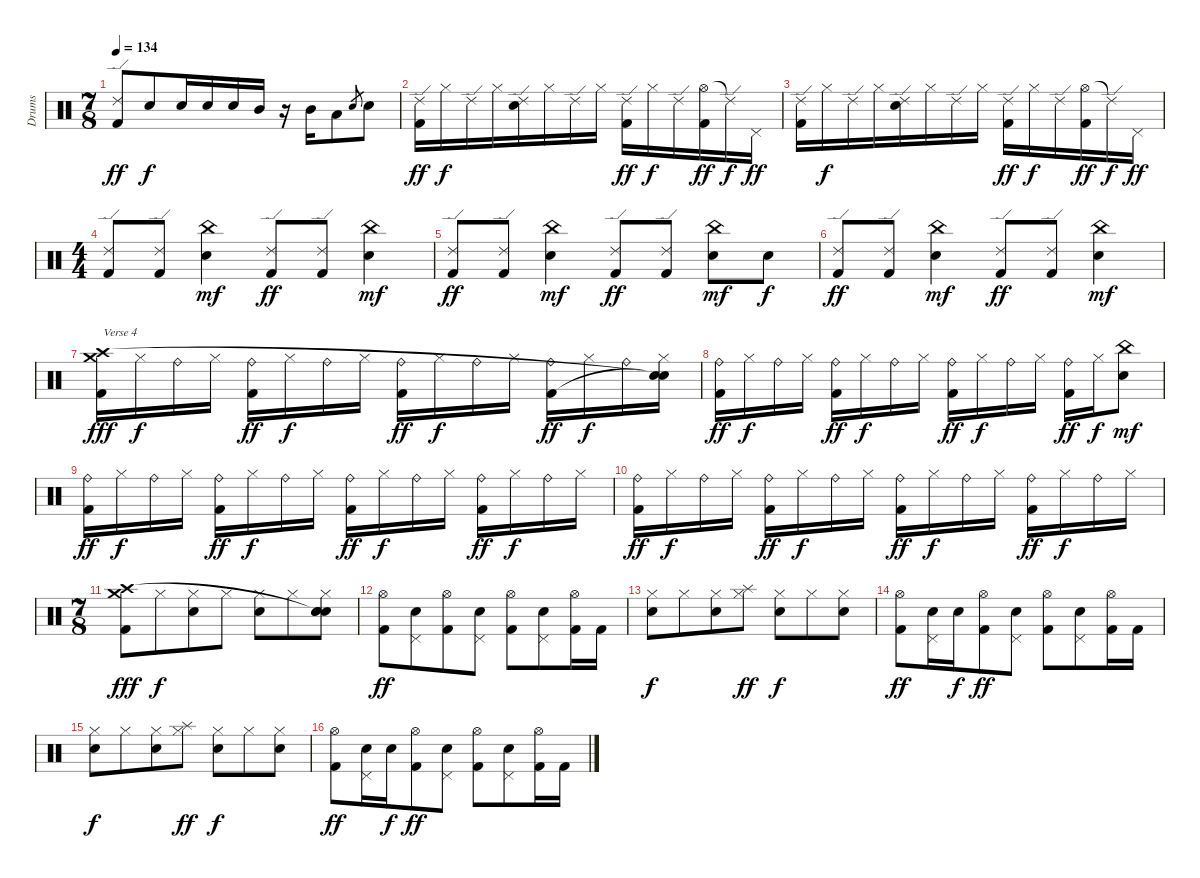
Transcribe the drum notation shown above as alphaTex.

\track ("Drums" "Drums") {instrument percussion}
\staff {score}
\articulation defaults
\ts (7 8)
\tempo 134
\clef neutral
\ks c
("Ride (edge) 2" "Kick (hit) 2").8{dy ff} "Snare (hit) 2".8{dy f} "Snare (hit) 2".16 "Snare (hit) 2".16 "Snare (hit) 2".16 "Mid Tom (hit)".16 r.16 "Mid Tom (hit)".16 "Low Tom (hit)".8 "Snare (hit) 2".8{gr} "Snare (hit) 2".8 |
("Ride (edge) 2" "Kick (hit) 2").16{dy ff} "Hi-Hat (closed)".16{dy f} "Ride (edge) 2".16 "Hi-Hat (closed)".16 ("Ride (edge) 2" "Snare (hit) 2").16 "Hi-Hat (closed)".16 "Ride (edge) 2".16 "Hi-Hat (closed)".16 ("Ride (edge) 2" "Kick (hit) 2").16{dy ff} "Hi-Hat (closed)".16{dy f} "Ride (edge) 2".16 ("Hi-Hat (open)" "Kick (hit) 2").16{dy ff} "Ride (edge) 2"{t}.16{dy f} "Pedal Hi-Hat (hit)".16{dy ff} |
("Ride (edge) 2" "Kick (hit) 2").16 "Hi-Hat (closed)".16{dy f} "Ride (edge) 2".16 "Hi-Hat (closed)".16 ("Ride (edge) 2" "Snare (hit) 2").16 "Hi-Hat (closed)".16 "Ride (edge) 2".16 "Hi-Hat (closed)".16 ("Ride (edge) 2" "Kick (hit) 2").16{dy ff} "Hi-Hat (closed)".16{dy f} "Ride (edge) 2".16 ("Hi-Hat (open)" "Kick (hit) 2").16{dy ff} "Ride (edge) 2"{t}.16{dy f} "Pedal Hi-Hat (hit)".16{dy ff} |
\ts (4 4)
("Ride (edge) 2" "Kick (hit) 2").8 ("Ride (edge) 2" "Kick (hit) 2").8 ("China (hit)" "Snare (hit) 2").4{dy mf} ("Ride (edge) 2" "Kick (hit) 2").8{dy ff} ("Ride (edge) 2" "Kick (hit) 2").8 ("China (hit)" "Snare (hit) 2").4{dy mf} |
("Ride (edge) 2" "Kick (hit) 2").8{dy ff} ("Ride (edge) 2" "Kick (hit) 2").8 ("China (hit)" "Snare (hit) 2").4{dy mf} ("Ride (edge) 2" "Kick (hit) 2").8{dy ff} ("Ride (edge) 2" "Kick (hit) 2").8 ("China (hit)" "Snare (hit) 2").8{dy mf} "Snare (hit) 2".8{dy f} |
("Ride (edge) 2" "Kick (hit) 2").8{dy ff} ("Ride (edge) 2" "Kick (hit) 2").8 ("China (hit)" "Snare (hit) 2").4{dy mf} ("Ride (edge) 2" "Kick (hit) 2").8{dy ff} ("Ride (edge) 2" "Kick (hit) 2").8 ("China (hit)" "Snare (hit) 2").4{dy mf} |
("Crash medium (hit)" "Kick (hit) 2" "Crash high (hit)").16{txt "Verse 4" dy fff} "Hi-Hat (closed)".16{dy f} "Ride (bell)".16 "Hi-Hat (closed)".16 ("Ride (bell)" "Kick (hit) 2").16{dy ff} "Hi-Hat (closed)".16{dy f} "Ride (bell)".16 "Hi-Hat (closed)".16 ("Ride (bell)" "Kick (hit) 2").16{dy ff} "Hi-Hat (closed)".16{dy f} "Ride (bell)".16 "Hi-Hat (closed)".16 ("Ride (bell)" "Kick (hit) 2").16{dy ff} "Hi-Hat (closed)".16{dy f} "Ride (bell)".16 ("Hi-Hat (closed)" "Snare (hit)"{t} "Snare (hit)"{t}).16 |
("Ride (bell)" "Kick (hit) 2").16{dy ff} "Hi-Hat (closed)".16{dy f} "Ride (bell)".16 "Hi-Hat (closed)".16 ("Ride (bell)" "Kick (hit) 2").16{dy ff} "Hi-Hat (closed)".16{dy f} "Ride (bell)".16 "Hi-Hat (closed)".16 ("Ride (bell)" "Kick (hit) 2").16{dy ff} "Hi-Hat (closed)".16{dy f} "Ride (bell)".16 "Hi-Hat (closed)".16 ("Ride (bell)" "Kick (hit) 2").16{dy ff} "Hi-Hat (closed)".16{dy f} ("China (hit)" "Snare (hit) 2").8{dy mf} |
("Ride (bell)" "Kick (hit) 2").16{dy ff} "Hi-Hat (closed)".16{dy f} "Ride (bell)".16 "Hi-Hat (closed)".16 ("Ride (bell)" "Kick (hit) 2").16{dy ff} "Hi-Hat (closed)".16{dy f} "Ride (bell)".16 "Hi-Hat (closed)".16 ("Ride (bell)" "Kick (hit) 2").16{dy ff} "Hi-Hat (closed)".16{dy f} "Ride (bell)".16 "Hi-Hat (closed)".16 ("Ride (bell)" "Kick (hit) 2").16{dy ff} "Hi-Hat (closed)".16{dy f} "Ride (bell)".16 "Hi-Hat (closed)".16 |
("Ride (bell)" "Kick (hit) 2").16{dy ff} "Hi-Hat (closed)".16{dy f} "Ride (bell)".16 "Hi-Hat (closed)".16 ("Ride (bell)" "Kick (hit) 2").16{dy ff} "Hi-Hat (closed)".16{dy f} "Ride (bell)".16 "Hi-Hat (closed)".16 ("Ride (bell)" "Kick (hit) 2").16{dy ff} "Hi-Hat (closed)".16{dy f} "Ride (bell)".16 "Hi-Hat (closed)".16 ("Ride (bell)" "Kick (hit) 2").16{dy ff} "Hi-Hat (closed)".16{dy f} "Ride (bell)".16 "Hi-Hat (closed)".16 |
\ts (7 8)
("Crash medium (hit)" "Kick (hit) 2" "Crash high (hit)").8{dy fff} "Hi-Hat (closed)".8{dy f} ("Hi-Hat (closed)" "Snare (hit) 2").8 "Hi-Hat (closed)".8 ("Hi-Hat (closed)" "Snare (hit) 2").8 "Hi-Hat (closed)".8 ("Hi-Hat (closed)" "Snare (hit) 2" "Snare (hit)"{t} "Snare (hit)").8 |
("Hi-Hat (open)" "Kick (hit) 2").8{dy ff} ("Pedal Hi-Hat (hit)" "Snare (hit) 2").8 ("Hi-Hat (open)" "Kick (hit) 2").8 ("Pedal Hi-Hat (hit)" "Snare (hit) 2").8 ("Hi-Hat (open)" "Kick (hit) 2").8 ("Pedal Hi-Hat (hit)" "Snare (hit) 2").8 ("Hi-Hat (open)" "Kick (hit) 2").16 "Kick (hit) 2".16 |
("Hi-Hat (closed)" "Snare (hit) 2").8{dy f} "Hi-Hat (closed)".8 ("Hi-Hat (closed)" "Snare (hit) 2").8 ("Splash (hit)" "Hi-Hat (closed)").8{dy ff} ("Hi-Hat (closed)" "Snare (hit) 2").8{dy f} "Hi-Hat (closed)".8 ("Hi-Hat (closed)" "Snare (hit) 2").8 |
("Hi-Hat (open)" "Kick (hit) 2").8{dy ff} ("Pedal Hi-Hat (hit)" "Snare (hit) 2").16 "Snare (hit) 2".16{dy f} ("Hi-Hat (open)" "Kick (hit) 2").8{dy ff} ("Pedal Hi-Hat (hit)" "Snare (hit) 2").8 ("Hi-Hat (open)" "Kick (hit) 2").8 ("Pedal Hi-Hat (hit)" "Snare (hit) 2").8 ("Hi-Hat (open)" "Kick (hit) 2").16 "Kick (hit) 2".16 |
("Hi-Hat (closed)" "Snare (hit) 2").8{dy f} "Hi-Hat (closed)".8 ("Hi-Hat (closed)" "Snare (hit) 2").8 ("Splash (hit)" "Hi-Hat (closed)").8{dy ff} ("Hi-Hat (closed)" "Snare (hit) 2").8{dy f} "Hi-Hat (closed)".8 ("Hi-Hat (closed)" "Snare (hit) 2").8 |
("Hi-Hat (open)" "Kick (hit) 2").8{dy ff} ("Pedal Hi-Hat (hit)" "Snare (hit) 2").16 "Snare (hit) 2".16{dy f} ("Hi-Hat (open)" "Kick (hit) 2").8{dy ff} ("Pedal Hi-Hat (hit)" "Snare (hit) 2").8 ("Hi-Hat (open)" "Kick (hit) 2").8 ("Pedal Hi-Hat (hit)" "Snare (hit) 2").8 ("Hi-Hat (open)" "Kick (hit) 2").16 "Kick (hit) 2".16
